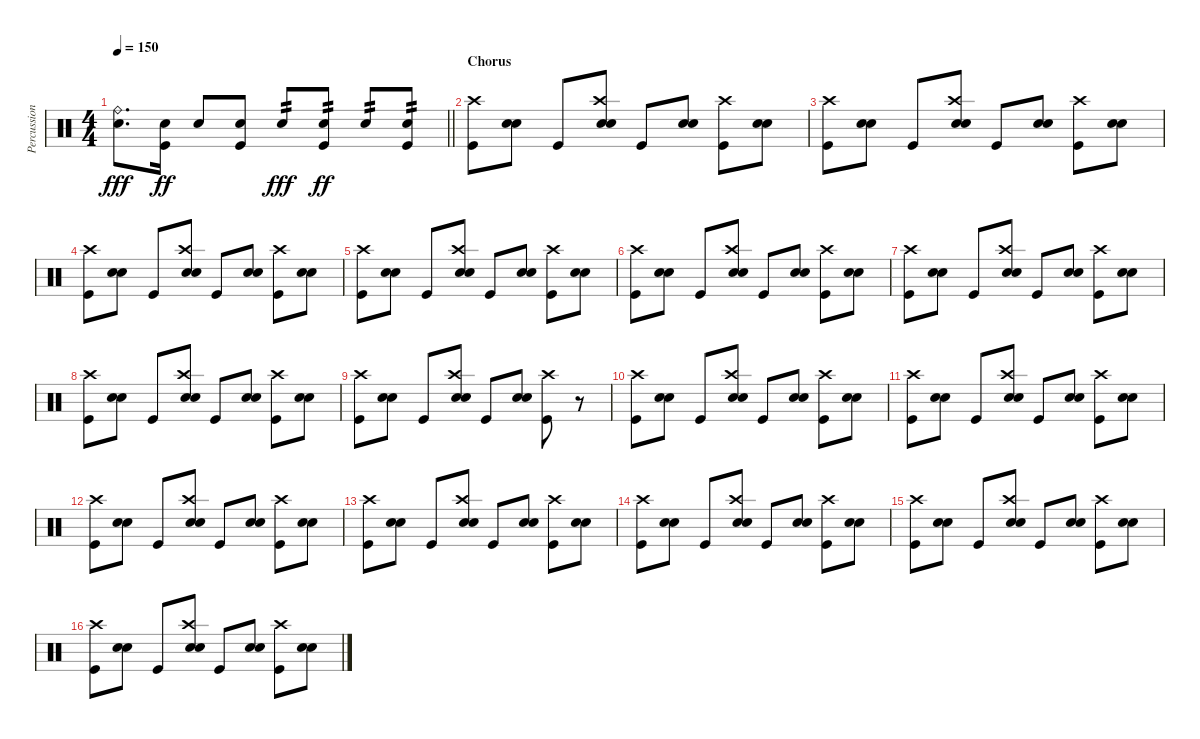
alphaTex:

\track ("Percussion" "Percussion") {instrument percussion}
\staff {score}
\articulation defaults
\ts (4 4)
\tempo 150
\clef neutral
\barLineRight lightlight
\ks c
("Ride (bell)" "Electric Snare (hit)").8{d dy fff} ("Electric Snare (hit)" "Kick (hit)").16{dy ff} "Electric Snare (hit)".8 ("Electric Snare (hit)" "Kick (hit)").8 "Electric Snare (hit)".8{tp 2 dy fff} ("Electric Snare (hit)" "Kick (hit)").8{tp 2 dy ff} "Electric Snare (hit)".8{tp 2} ("Electric Snare (hit)" "Kick (hit)").8{tp 2} |
\section ("" "Chorus")
("Crash high (hit)" "Kick (hit)").8 ("Snare (hit) 2" "Electric Snare (hit)").8 "Kick (hit)".8 ("Crash high (hit)" "Snare (hit) 2" "Electric Snare (hit)").8 "Kick (hit)".8 ("Snare (hit) 2" "Electric Snare (hit)").8 ("Crash high (hit)" "Kick (hit)").8 ("Snare (hit) 2" "Electric Snare (hit)").8 |
("Crash high (hit)" "Kick (hit)").8 ("Snare (hit) 2" "Electric Snare (hit)").8 "Kick (hit)".8 ("Crash high (hit)" "Snare (hit) 2" "Electric Snare (hit)").8 "Kick (hit)".8 ("Snare (hit) 2" "Electric Snare (hit)").8 ("Crash high (hit)" "Kick (hit)").8 ("Snare (hit) 2" "Electric Snare (hit)").8 |
("Crash high (hit)" "Kick (hit)").8 ("Snare (hit) 2" "Electric Snare (hit)").8 "Kick (hit)".8 ("Crash high (hit)" "Snare (hit) 2" "Electric Snare (hit)").8 "Kick (hit)".8 ("Snare (hit) 2" "Electric Snare (hit)").8 ("Crash high (hit)" "Kick (hit)").8 ("Snare (hit) 2" "Electric Snare (hit)").8 |
("Crash high (hit)" "Kick (hit)").8 ("Snare (hit) 2" "Electric Snare (hit)").8 "Kick (hit)".8 ("Crash high (hit)" "Snare (hit) 2" "Electric Snare (hit)").8 "Kick (hit)".8 ("Snare (hit) 2" "Electric Snare (hit)").8 ("Crash high (hit)" "Kick (hit)").8 ("Snare (hit) 2" "Electric Snare (hit)").8 |
("Crash high (hit)" "Kick (hit)").8 ("Snare (hit) 2" "Electric Snare (hit)").8 "Kick (hit)".8 ("Crash high (hit)" "Snare (hit) 2" "Electric Snare (hit)").8 "Kick (hit)".8 ("Snare (hit) 2" "Electric Snare (hit)").8 ("Crash high (hit)" "Kick (hit)").8 ("Snare (hit) 2" "Electric Snare (hit)").8 |
("Crash high (hit)" "Kick (hit)").8 ("Snare (hit) 2" "Electric Snare (hit)").8 "Kick (hit)".8 ("Crash high (hit)" "Snare (hit) 2" "Electric Snare (hit)").8 "Kick (hit)".8 ("Snare (hit) 2" "Electric Snare (hit)").8 ("Crash high (hit)" "Kick (hit)").8 ("Snare (hit) 2" "Electric Snare (hit)").8 |
("Crash high (hit)" "Kick (hit)").8 ("Snare (hit) 2" "Electric Snare (hit)").8 "Kick (hit)".8 ("Crash high (hit)" "Snare (hit) 2" "Electric Snare (hit)").8 "Kick (hit)".8 ("Snare (hit) 2" "Electric Snare (hit)").8 ("Crash high (hit)" "Kick (hit)").8 ("Snare (hit) 2" "Electric Snare (hit)").8 |
("Crash high (hit)" "Kick (hit)").8 ("Snare (hit) 2" "Electric Snare (hit)").8 "Kick (hit)".8 ("Crash high (hit)" "Snare (hit) 2" "Electric Snare (hit)").8 "Kick (hit)".8 ("Snare (hit) 2" "Electric Snare (hit)").8 ("Crash high (hit)" "Kick (hit)").8 r.8 |
("Crash high (hit)" "Kick (hit)").8 ("Snare (hit) 2" "Electric Snare (hit)").8 "Kick (hit)".8 ("Crash high (hit)" "Snare (hit) 2" "Electric Snare (hit)").8 "Kick (hit)".8 ("Snare (hit) 2" "Electric Snare (hit)").8 ("Crash high (hit)" "Kick (hit)").8 ("Snare (hit) 2" "Electric Snare (hit)").8 |
("Crash high (hit)" "Kick (hit)").8 ("Snare (hit) 2" "Electric Snare (hit)").8 "Kick (hit)".8 ("Crash high (hit)" "Snare (hit) 2" "Electric Snare (hit)").8 "Kick (hit)".8 ("Snare (hit) 2" "Electric Snare (hit)").8 ("Crash high (hit)" "Kick (hit)").8 ("Snare (hit) 2" "Electric Snare (hit)").8 |
("Crash high (hit)" "Kick (hit)").8 ("Snare (hit) 2" "Electric Snare (hit)").8 "Kick (hit)".8 ("Crash high (hit)" "Snare (hit) 2" "Electric Snare (hit)").8 "Kick (hit)".8 ("Snare (hit) 2" "Electric Snare (hit)").8 ("Crash high (hit)" "Kick (hit)").8 ("Snare (hit) 2" "Electric Snare (hit)").8 |
("Crash high (hit)" "Kick (hit)").8 ("Snare (hit) 2" "Electric Snare (hit)").8 "Kick (hit)".8 ("Crash high (hit)" "Snare (hit) 2" "Electric Snare (hit)").8 "Kick (hit)".8 ("Snare (hit) 2" "Electric Snare (hit)").8 ("Crash high (hit)" "Kick (hit)").8 ("Snare (hit) 2" "Electric Snare (hit)").8 |
("Crash high (hit)" "Kick (hit)").8 ("Snare (hit) 2" "Electric Snare (hit)").8 "Kick (hit)".8 ("Crash high (hit)" "Snare (hit) 2" "Electric Snare (hit)").8 "Kick (hit)".8 ("Snare (hit) 2" "Electric Snare (hit)").8 ("Crash high (hit)" "Kick (hit)").8 ("Snare (hit) 2" "Electric Snare (hit)").8 |
("Crash high (hit)" "Kick (hit)").8 ("Snare (hit) 2" "Electric Snare (hit)").8 "Kick (hit)".8 ("Crash high (hit)" "Snare (hit) 2" "Electric Snare (hit)").8 "Kick (hit)".8 ("Snare (hit) 2" "Electric Snare (hit)").8 ("Crash high (hit)" "Kick (hit)").8 ("Snare (hit) 2" "Electric Snare (hit)").8 |
("Crash high (hit)" "Kick (hit)").8 ("Snare (hit) 2" "Electric Snare (hit)").8 "Kick (hit)".8 ("Crash high (hit)" "Snare (hit) 2" "Electric Snare (hit)").8 "Kick (hit)".8 ("Snare (hit) 2" "Electric Snare (hit)").8 ("Crash high (hit)" "Kick (hit)").8 ("Snare (hit) 2" "Electric Snare (hit)").8
